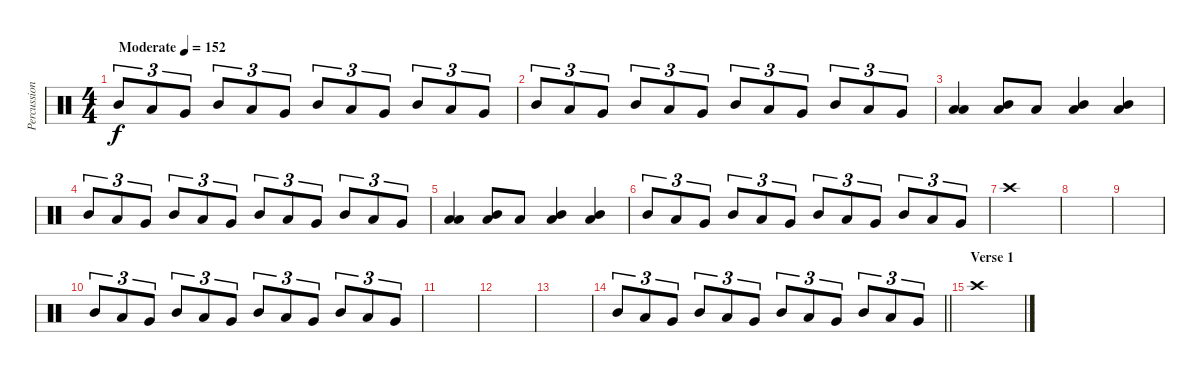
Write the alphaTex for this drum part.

\track ("Percussion" "Percussion") {instrument percussion}
\staff {score}
\articulation defaults
\ts (4 4)
\tempo (152 "Moderate")
\clef neutral
\ks c "Mid Tom (hit)".8{tu (3 2) dy f} "Low Tom (hit)".8{tu (3 2)} "Very Low Tom (hit)".8{tu (3 2)} "Mid Tom (hit)".8{tu (3 2)} "Low Tom (hit)".8{tu (3 2)} "Very Low Tom (hit)".8{tu (3 2)} "Mid Tom (hit)".8{tu (3 2)} "Low Tom (hit)".8{tu (3 2)} "Very Low Tom (hit)".8{tu (3 2)} "Mid Tom (hit)".8{tu (3 2)} "Low Tom (hit)".8{tu (3 2)} "Very Low Tom (hit)".8{tu (3 2)}
|
"Mid Tom (hit)".8{tu (3 2)} "Low Tom (hit)".8{tu (3 2)} "Very Low Tom (hit)".8{tu (3 2)} "Mid Tom (hit)".8{tu (3 2)} "Low Tom (hit)".8{tu (3 2)} "Very Low Tom (hit)".8{tu (3 2)} "Mid Tom (hit)".8{tu (3 2)} "Low Tom (hit)".8{tu (3 2)} "Very Low Tom (hit)".8{tu (3 2)} "Mid Tom (hit)".8{tu (3 2)} "Low Tom (hit)".8{tu (3 2)} "Very Low Tom (hit)".8{tu (3 2)} |
("Low Floor Tom (hit)" "Low Floor Tom (hit)").4 ("Low Tom (hit)" "Mid Tom (hit)").8 "Low Tom (hit)".8 ("Low Tom (hit)" "Mid Tom (hit)").4 ("Low Tom (hit)" "Mid Tom (hit)").4 |
"Mid Tom (hit)".8{tu (3 2)} "Low Tom (hit)".8{tu (3 2)} "Very Low Tom (hit)".8{tu (3 2)} "Mid Tom (hit)".8{tu (3 2)} "Low Tom (hit)".8{tu (3 2)} "Very Low Tom (hit)".8{tu (3 2)} "Mid Tom (hit)".8{tu (3 2)} "Low Tom (hit)".8{tu (3 2)} "Very Low Tom (hit)".8{tu (3 2)} "Mid Tom (hit)".8{tu (3 2)} "Low Tom (hit)".8{tu (3 2)} "Very Low Tom (hit)".8{tu (3 2)} |
("Low Floor Tom (hit)" "Low Floor Tom (hit)").4 ("Low Tom (hit)" "Mid Tom (hit)").8 "Low Tom (hit)".8 ("Low Tom (hit)" "Mid Tom (hit)").4 ("Low Tom (hit)" "Mid Tom (hit)").4 |
"Mid Tom (hit)".8{tu (3 2)} "Low Tom (hit)".8{tu (3 2)} "Very Low Tom (hit)".8{tu (3 2)} "Mid Tom (hit)".8{tu (3 2)} "Low Tom (hit)".8{tu (3 2)} "Very Low Tom (hit)".8{tu (3 2)} "Mid Tom (hit)".8{tu (3 2)} "Low Tom (hit)".8{tu (3 2)} "Very Low Tom (hit)".8{tu (3 2)} "Mid Tom (hit)".8{tu (3 2)} "Low Tom (hit)".8{tu (3 2)} "Very Low Tom (hit)".8{tu (3 2)} |
"Crash high (hit)".1 |
|
|
"Mid Tom (hit)".8{tu (3 2)} "Low Tom (hit)".8{tu (3 2)} "Very Low Tom (hit)".8{tu (3 2)} "Mid Tom (hit)".8{tu (3 2)} "Low Tom (hit)".8{tu (3 2)} "Very Low Tom (hit)".8{tu (3 2)} "Mid Tom (hit)".8{tu (3 2)} "Low Tom (hit)".8{tu (3 2)} "Very Low Tom (hit)".8{tu (3 2)} "Mid Tom (hit)".8{tu (3 2)} "Low Tom (hit)".8{tu (3 2)} "Very Low Tom (hit)".8{tu (3 2)} |
|
|
|
\barLineRight lightlight "Mid Tom (hit)".8{tu (3 2)} "Low Tom (hit)".8{tu (3 2)} "Very Low Tom (hit)".8{tu (3 2)} "Mid Tom (hit)".8{tu (3 2)} "Low Tom (hit)".8{tu (3 2)} "Very Low Tom (hit)".8{tu (3 2)} "Mid Tom (hit)".8{tu (3 2)} "Low Tom (hit)".8{tu (3 2)} "Very Low Tom (hit)".8{tu (3 2)} "Mid Tom (hit)".8{tu (3 2)} "Low Tom (hit)".8{tu (3 2)} "Very Low Tom (hit)".8{tu (3 2)}
|
\section ("" "Verse 1")
"Crash high (hit)".1
